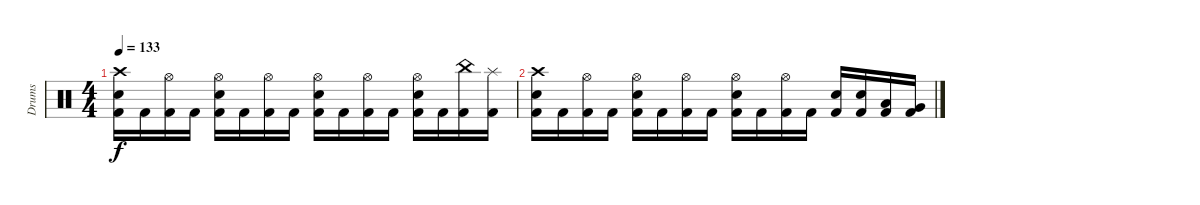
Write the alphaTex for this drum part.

\track ("Drums" "Drums") {instrument percussion}
\staff {score}
\articulation defaults
\ts (4 4)
\tempo 133
\clef neutral
\ks c
("Kick (hit) 2" "Snare (hit) 2" "Crash high (hit)").16{dy f} "Kick (hit) 2".16 ("Kick (hit) 2" "Hi-Hat (open)").16 "Kick (hit) 2".16 ("Kick (hit) 2" "Snare (hit) 2" "Hi-Hat (open)").16 "Kick (hit) 2".16 ("Kick (hit) 2" "Hi-Hat (open)").16 "Kick (hit) 2".16 ("Kick (hit) 2" "Snare (hit) 2" "Hi-Hat (open)").16 "Kick (hit) 2".16 ("Kick (hit) 2" "Hi-Hat (open)").16 "Kick (hit) 2".16 ("Kick (hit) 2" "Snare (hit) 2" "Hi-Hat (open)").16 "Kick (hit) 2".16 ("Kick (hit) 2" "China (hit)").16 ("Kick (hit) 2" "Splash (hit)").16 |
("Kick (hit) 2" "Snare (hit) 2" "Crash high (hit)").16 "Kick (hit) 2".16 ("Kick (hit) 2" "Hi-Hat (open)").16 "Kick (hit) 2".16 ("Kick (hit) 2" "Snare (hit) 2" "Hi-Hat (open)").16 "Kick (hit) 2".16 ("Kick (hit) 2" "Hi-Hat (open)").16 "Kick (hit) 2".16 ("Kick (hit) 2" "Snare (hit) 2" "Hi-Hat (open)").16 "Kick (hit) 2".16 ("Kick (hit) 2" "Hi-Hat (open)").16 "Kick (hit) 2".16 ("Kick (hit) 2" "Snare (hit) 2").16 ("Kick (hit) 2" "Snare (hit) 2").16 ("Kick (hit) 2" "Low Tom (hit)").16 ("Kick (hit) 2" "Very Low Tom (hit)").16
